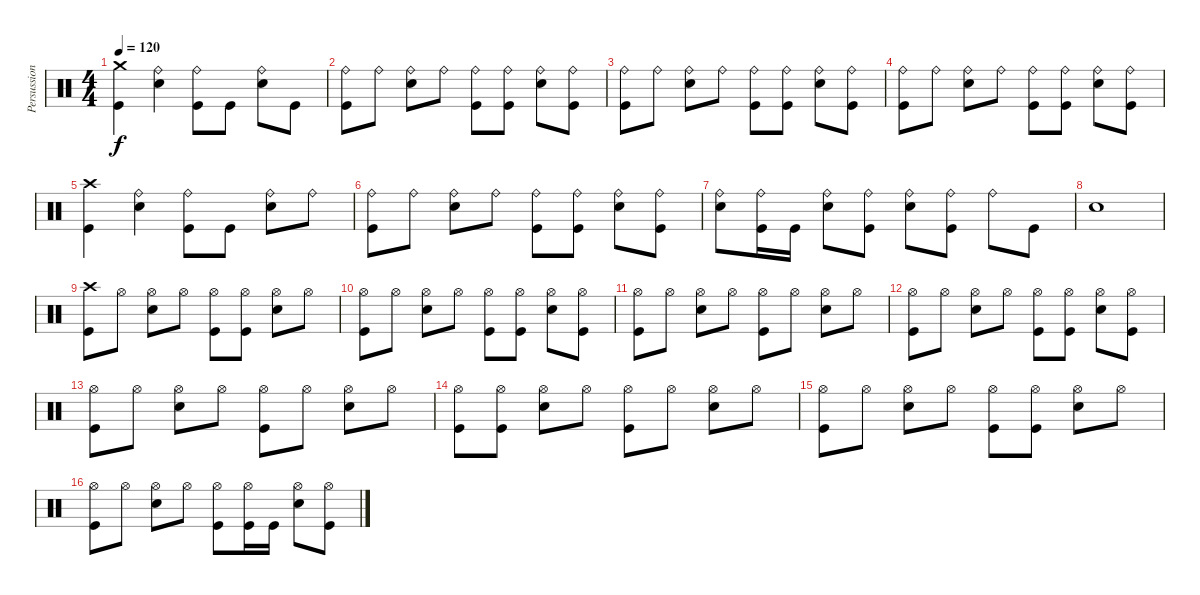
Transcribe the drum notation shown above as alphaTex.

\track ("Persussion" "Persussion") {instrument percussion}
\staff {score}
\articulation defaults
\ts (4 4)
\tempo 120
\clef neutral
\ks c
("Crash medium (hit)" "Kick (hit)").4{dy f} ("Ride (bell)" "Snare (hit) 2").4 ("Ride (bell)" "Kick (hit)").8 "Kick (hit)".8 ("Ride (bell)" "Snare (hit) 2").8 "Kick (hit)".8 |
("Ride (bell)" "Kick (hit)").8 "Ride (bell)".8 ("Ride (bell)" "Snare (hit) 2").8 "Ride (bell)".8 ("Ride (bell)" "Kick (hit)").8 ("Ride (bell)" "Kick (hit)").8 ("Ride (bell)" "Snare (hit) 2").8 ("Ride (bell)" "Kick (hit)").8 |
("Ride (bell)" "Kick (hit)").8 "Ride (bell)".8 ("Ride (bell)" "Snare (hit) 2").8 "Ride (bell)".8 ("Ride (bell)" "Kick (hit)").8 ("Ride (bell)" "Kick (hit)").8 ("Ride (bell)" "Snare (hit) 2").8 ("Ride (bell)" "Kick (hit)").8 |
("Ride (bell)" "Kick (hit)").8 "Ride (bell)".8 ("Ride (bell)" "Snare (hit) 2").8 "Ride (bell)".8 ("Ride (bell)" "Kick (hit)").8 ("Ride (bell)" "Kick (hit)").8 ("Ride (bell)" "Snare (hit) 2").8 ("Ride (bell)" "Kick (hit)").8 |
("Crash high (hit)" "Kick (hit)").4 ("Ride (bell)" "Snare (hit) 2").4 ("Ride (bell)" "Kick (hit)").8 "Kick (hit)".8 ("Ride (bell)" "Snare (hit) 2").8 "Ride (bell)".8 |
("Ride (bell)" "Kick (hit)").8 "Ride (bell)".8 ("Ride (bell)" "Snare (hit) 2").8 "Ride (bell)".8 ("Ride (bell)" "Kick (hit)").8 ("Ride (bell)" "Kick (hit)").8 ("Ride (bell)" "Snare (hit) 2").8 ("Ride (bell)" "Kick (hit)").8 |
("Ride (bell)" "Snare (hit) 2").8 ("Ride (bell)" "Kick (hit)").16 "Kick (hit)".16 ("Ride (bell)" "Snare (hit) 2").8 ("Ride (bell)" "Kick (hit)").8 ("Ride (bell)" "Snare (hit) 2").8 ("Ride (bell)" "Kick (hit)").8 "Ride (bell)".8 "Kick (hit)".8 |
"Snare (hit) 2".1 |
("Crash high (hit)" "Kick (hit)").8 "Hi-Hat (open)".8 ("Hi-Hat (open)" "Snare (hit) 2").8 "Hi-Hat (open)".8 ("Hi-Hat (open)" "Kick (hit)").8 ("Hi-Hat (open)" "Kick (hit)").8 ("Hi-Hat (open)" "Snare (hit) 2").8 "Hi-Hat (open)".8 |
("Hi-Hat (open)" "Kick (hit)").8 "Hi-Hat (open)".8 ("Hi-Hat (open)" "Snare (hit) 2").8 "Hi-Hat (open)".8 ("Hi-Hat (open)" "Kick (hit)").8 ("Hi-Hat (open)" "Kick (hit)").8 ("Hi-Hat (open)" "Snare (hit) 2").8 ("Hi-Hat (open)" "Kick (hit)").8 |
("Hi-Hat (open)" "Kick (hit)").8 "Hi-Hat (open)".8 ("Hi-Hat (open)" "Snare (hit) 2").8 "Hi-Hat (open)".8 ("Hi-Hat (open)" "Kick (hit)").8 "Hi-Hat (open)".8 ("Hi-Hat (open)" "Snare (hit) 2").8 "Hi-Hat (open)".8 |
("Hi-Hat (open)" "Kick (hit)").8 "Hi-Hat (open)".8 ("Hi-Hat (open)" "Snare (hit) 2").8 "Hi-Hat (open)".8 ("Hi-Hat (open)" "Kick (hit)").8 ("Hi-Hat (open)" "Kick (hit)").8 ("Hi-Hat (open)" "Snare (hit) 2").8 ("Hi-Hat (open)" "Kick (hit)").8 |
("Hi-Hat (open)" "Kick (hit)").8 "Hi-Hat (open)".8 ("Hi-Hat (open)" "Snare (hit) 2").8 "Hi-Hat (open)".8 ("Hi-Hat (open)" "Kick (hit)").8 "Hi-Hat (open)".8 ("Hi-Hat (open)" "Snare (hit) 2").8 "Hi-Hat (open)".8 |
("Hi-Hat (open)" "Kick (hit)").8 ("Hi-Hat (open)" "Kick (hit)").8 ("Hi-Hat (open)" "Snare (hit) 2").8 "Hi-Hat (open)".8 ("Hi-Hat (open)" "Kick (hit)").8 "Hi-Hat (open)".8 ("Hi-Hat (open)" "Snare (hit) 2").8 "Hi-Hat (open)".8 |
("Hi-Hat (open)" "Kick (hit)").8 "Hi-Hat (open)".8 ("Hi-Hat (open)" "Snare (hit) 2").8 "Hi-Hat (open)".8 ("Hi-Hat (open)" "Kick (hit)").8 ("Hi-Hat (open)" "Kick (hit)").8 ("Hi-Hat (open)" "Snare (hit) 2").8 "Hi-Hat (open)".8 |
("Hi-Hat (open)" "Kick (hit)").8 "Hi-Hat (open)".8 ("Hi-Hat (open)" "Snare (hit) 2").8 "Hi-Hat (open)".8 ("Hi-Hat (open)" "Kick (hit)").8 ("Hi-Hat (open)" "Kick (hit)").16 "Kick (hit)".16 ("Hi-Hat (open)" "Snare (hit) 2").8 ("Hi-Hat (open)" "Kick (hit)").8
